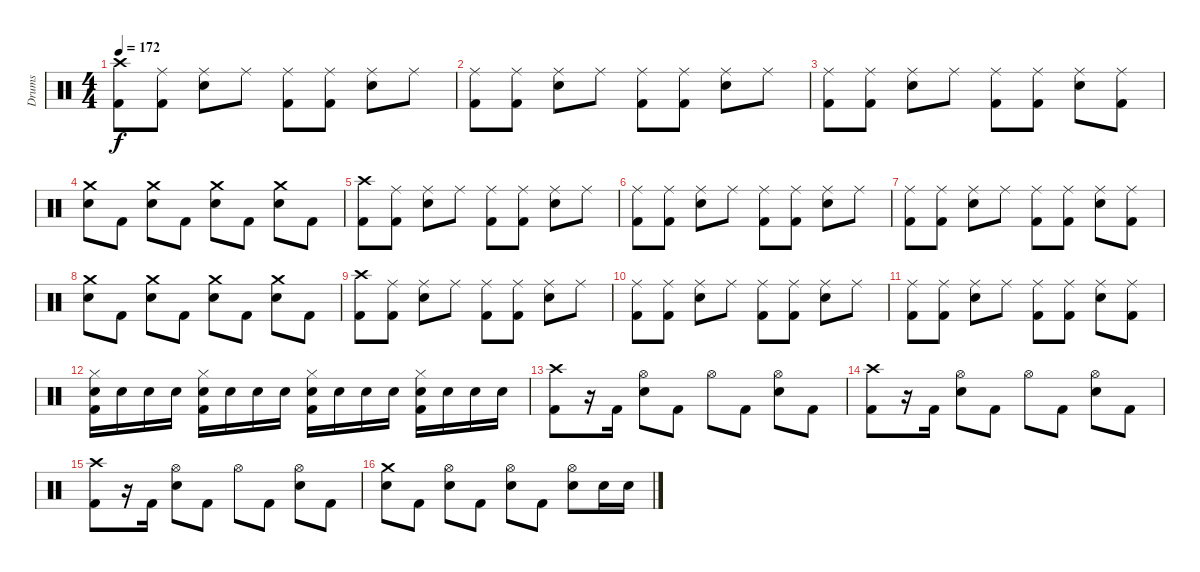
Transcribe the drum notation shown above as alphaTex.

\track ("Drums" "Drums") {instrument percussion}
\staff {score}
\articulation defaults
\ts (4 4)
\tempo 172
\clef neutral
\ks c
("Crash high (hit)" "Kick (hit) 2").8{dy f} ("Ride (middle)" "Kick (hit) 2").8 ("Ride (middle)" "Snare (hit) 2").8 "Ride (middle)".8 ("Ride (middle)" "Kick (hit) 2").8 ("Ride (middle)" "Kick (hit) 2").8 ("Ride (middle)" "Snare (hit) 2").8 "Ride (middle)".8 |
("Ride (middle)" "Kick (hit) 2").8 ("Ride (middle)" "Kick (hit) 2").8 ("Ride (middle)" "Snare (hit) 2").8 "Ride (middle)".8 ("Ride (middle)" "Kick (hit) 2").8 ("Ride (middle)" "Kick (hit) 2").8 ("Ride (middle)" "Snare (hit) 2").8 "Ride (middle)".8 |
("Ride (middle)" "Kick (hit) 2").8 ("Ride (middle)" "Kick (hit) 2").8 ("Ride (middle)" "Snare (hit) 2").8 "Ride (middle)".8 ("Ride (middle)" "Kick (hit) 2").8 ("Ride (middle)" "Kick (hit) 2").8 ("Ride (middle)" "Snare (hit) 2").8 ("Ride (middle)" "Kick (hit) 2").8 |
("Crash medium (hit)" "Snare (hit) 2").8 "Kick (hit) 2".8 ("Crash medium (hit)" "Snare (hit) 2").8 "Kick (hit) 2".8 ("Crash medium (hit)" "Snare (hit) 2").8 "Kick (hit) 2".8 ("Crash medium (hit)" "Snare (hit) 2").8 "Kick (hit) 2".8 |
("Crash high (hit)" "Kick (hit) 2").8 ("Ride (middle)" "Kick (hit) 2").8 ("Ride (middle)" "Snare (hit) 2").8 "Ride (middle)".8 ("Ride (middle)" "Kick (hit) 2").8 ("Ride (middle)" "Kick (hit) 2").8 ("Ride (middle)" "Snare (hit) 2").8 "Ride (middle)".8 |
("Ride (middle)" "Kick (hit) 2").8 ("Ride (middle)" "Kick (hit) 2").8 ("Ride (middle)" "Snare (hit) 2").8 "Ride (middle)".8 ("Ride (middle)" "Kick (hit) 2").8 ("Ride (middle)" "Kick (hit) 2").8 ("Ride (middle)" "Snare (hit) 2").8 "Ride (middle)".8 |
("Ride (middle)" "Kick (hit) 2").8 ("Ride (middle)" "Kick (hit) 2").8 ("Ride (middle)" "Snare (hit) 2").8 "Ride (middle)".8 ("Ride (middle)" "Kick (hit) 2").8 ("Ride (middle)" "Kick (hit) 2").8 ("Ride (middle)" "Snare (hit) 2").8 ("Ride (middle)" "Kick (hit) 2").8 |
("Crash medium (hit)" "Snare (hit) 2").8 "Kick (hit) 2".8 ("Crash medium (hit)" "Snare (hit) 2").8 "Kick (hit) 2".8 ("Crash medium (hit)" "Snare (hit) 2").8 "Kick (hit) 2".8 ("Crash medium (hit)" "Snare (hit) 2").8 "Kick (hit) 2".8 |
("Crash high (hit)" "Kick (hit) 2").8 ("Ride (middle)" "Kick (hit) 2").8 ("Ride (middle)" "Snare (hit) 2").8 "Ride (middle)".8 ("Ride (middle)" "Kick (hit) 2").8 ("Ride (middle)" "Kick (hit) 2").8 ("Ride (middle)" "Snare (hit) 2").8 "Ride (middle)".8 |
("Ride (middle)" "Kick (hit) 2").8 ("Ride (middle)" "Kick (hit) 2").8 ("Ride (middle)" "Snare (hit) 2").8 "Ride (middle)".8 ("Ride (middle)" "Kick (hit) 2").8 ("Ride (middle)" "Kick (hit) 2").8 ("Ride (middle)" "Snare (hit) 2").8 "Ride (middle)".8 |
("Ride (middle)" "Kick (hit) 2").8 ("Ride (middle)" "Kick (hit) 2").8 ("Ride (middle)" "Snare (hit) 2").8 "Ride (middle)".8 ("Ride (middle)" "Kick (hit) 2").8 ("Ride (middle)" "Kick (hit) 2").8 ("Ride (middle)" "Snare (hit) 2").8 ("Ride (middle)" "Kick (hit) 2").8 |
("Hi-Hat (closed)" "Snare (hit) 2" "Kick (hit) 2").16 "Snare (hit) 2".16 "Snare (hit) 2".16 "Snare (hit) 2".16 ("Hi-Hat (closed)" "Snare (hit) 2" "Kick (hit) 2").16 "Snare (hit) 2".16 "Snare (hit) 2".16 "Snare (hit) 2".16 ("Hi-Hat (closed)" "Snare (hit) 2" "Kick (hit) 2").16 "Snare (hit) 2".16 "Snare (hit) 2".16 "Snare (hit) 2".16 ("Hi-Hat (closed)" "Snare (hit) 2" "Kick (hit) 2").16 "Snare (hit) 2".16 "Snare (hit) 2".16 "Snare (hit) 2".16 |
("Crash high (hit)" "Kick (hit) 2").8 r.16 "Kick (hit) 2".16 ("Hi-Hat (open)" "Snare (hit) 2").8 "Kick (hit) 2".8 "Hi-Hat (open)".8 "Kick (hit) 2".8 ("Hi-Hat (open)" "Snare (hit) 2").8 "Kick (hit) 2".8 |
("Crash high (hit)" "Kick (hit) 2").8 r.16 "Kick (hit) 2".16 ("Hi-Hat (open)" "Snare (hit) 2").8 "Kick (hit) 2".8 "Hi-Hat (open)".8 "Kick (hit) 2".8 ("Hi-Hat (open)" "Snare (hit) 2").8 "Kick (hit) 2".8 |
("Crash high (hit)" "Kick (hit) 2").8 r.16 "Kick (hit) 2".16 ("Hi-Hat (open)" "Snare (hit) 2").8 "Kick (hit) 2".8 "Hi-Hat (open)".8 "Kick (hit) 2".8 ("Hi-Hat (open)" "Snare (hit) 2").8 "Kick (hit) 2".8 |
("Crash medium (hit)" "Snare (hit) 2").8 "Kick (hit) 2".8 ("Hi-Hat (open)" "Snare (hit) 2").8 "Kick (hit) 2".8 ("Hi-Hat (open)" "Snare (hit) 2").8 "Kick (hit) 2".8 ("Hi-Hat (open)" "Snare (hit) 2").8 "Snare (hit) 2".16 "Snare (hit) 2".16
